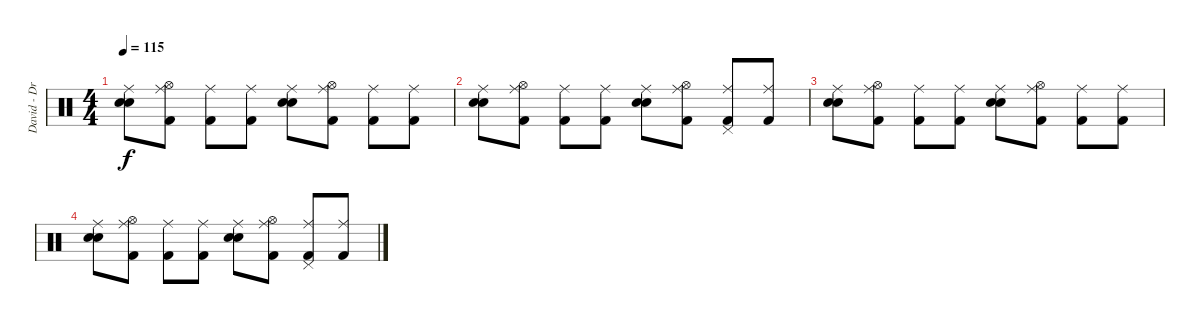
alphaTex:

\track ("David - Drums" "David - Dr") {instrument percussion}
\staff {score}
\articulation defaults
\ts (4 4)
\tempo 115
\clef neutral
\ks c
("Ride (middle)" "Electric Snare (hit)" "Snare (hit) 2").8{dy f} ("Ride (middle)" "Hi-Hat (open)" "Kick (hit) 2").8 ("Ride (middle)" "Kick (hit) 2").8 ("Ride (middle)" "Kick (hit) 2").8 ("Ride (middle)" "Electric Snare (hit)" "Snare (hit) 2").8 ("Ride (middle)" "Hi-Hat (open)" "Kick (hit) 2").8 ("Ride (middle)" "Kick (hit) 2").8 ("Ride (middle)" "Kick (hit) 2").8 |
("Ride (middle)" "Electric Snare (hit)" "Snare (hit) 2").8 ("Ride (middle)" "Hi-Hat (open)" "Kick (hit) 2").8 ("Ride (middle)" "Kick (hit) 2").8 ("Ride (middle)" "Kick (hit) 2").8{volume 0} ("Ride (middle)" "Electric Snare (hit)" "Snare (hit) 2").8 ("Ride (middle)" "Hi-Hat (open)" "Kick (hit) 2").8 ("Ride (middle)" "Pedal Hi-Hat (hit)" "Kick (hit) 2").8 ("Ride (middle)" "Kick (hit) 2").8 |
("Ride (middle)" "Electric Snare (hit)" "Snare (hit) 2").8 ("Ride (middle)" "Hi-Hat (open)" "Kick (hit) 2").8 ("Ride (middle)" "Kick (hit) 2").8 ("Ride (middle)" "Kick (hit) 2").8 ("Ride (middle)" "Electric Snare (hit)" "Snare (hit) 2").8 ("Ride (middle)" "Hi-Hat (open)" "Kick (hit) 2").8 ("Ride (middle)" "Kick (hit) 2").8 ("Ride (middle)" "Kick (hit) 2").8 |
("Ride (middle)" "Electric Snare (hit)" "Snare (hit) 2").8 ("Ride (middle)" "Hi-Hat (open)" "Kick (hit) 2").8 ("Ride (middle)" "Kick (hit) 2").8 ("Ride (middle)" "Kick (hit) 2").8 ("Ride (middle)" "Electric Snare (hit)" "Snare (hit) 2").8 ("Ride (middle)" "Hi-Hat (open)" "Kick (hit) 2").8 ("Ride (middle)" "Pedal Hi-Hat (hit)" "Kick (hit) 2").8 ("Ride (middle)" "Kick (hit) 2").8
